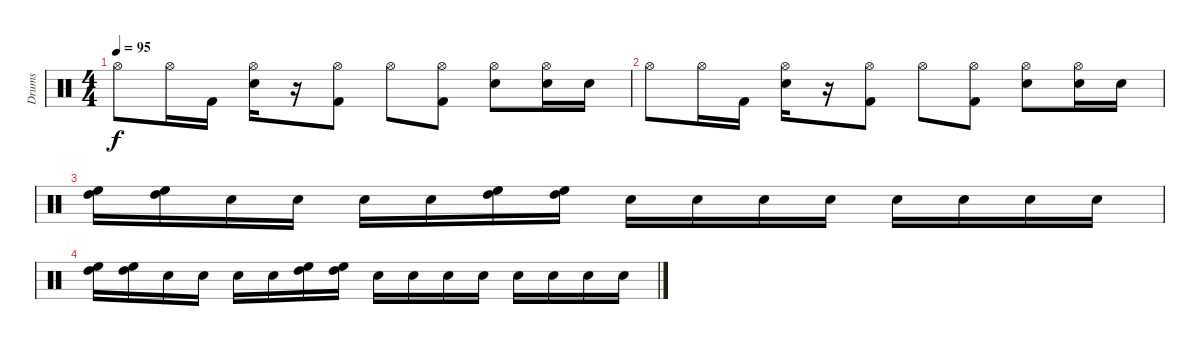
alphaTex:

\track ("Drums" "Drums") {instrument percussion}
\staff {score}
\articulation defaults
\ts (4 4)
\tempo 95
\clef neutral
\ks c "Hi-Hat (open)".8{dy f} "Hi-Hat (open)".16 "Kick (hit) 2".16
("Hi-Hat (open)" "Electric Snare (hit)").16 r.16 ("Hi-Hat (open)" "Kick (hit) 2").8 "Hi-Hat (open)".8 ("Hi-Hat (open)" "Kick (hit) 2").8 ("Hi-Hat (open)" "Electric Snare (hit)").8 ("Hi-Hat (open)" "Electric Snare (hit)").16 "Electric Snare (hit)".16 |
"Hi-Hat (open)".8 "Hi-Hat (open)".16 "Kick (hit) 2".16 ("Hi-Hat (open)" "Electric Snare (hit)").16 r.16 ("Hi-Hat (open)" "Kick (hit) 2").8 "Hi-Hat (open)".8 ("Hi-Hat (open)" "Kick (hit) 2").8 ("Hi-Hat (open)" "Electric Snare (hit)").8 ("Hi-Hat (open)" "Electric Snare (hit)").16 "Electric Snare (hit)".16 |
("High Floor Tom (hit)" "High Tom (hit)").16 ("High Floor Tom (hit)" "High Tom (hit)").16 "Snare (hit)"{x}.16 "Snare (hit)"{x}.16 "Snare (hit)"{x}.16 "Snare (hit)"{x}.16 ("High Floor Tom (hit)" "High Tom (hit)").16 ("High Floor Tom (hit)" "High Tom (hit)").16 "Snare (hit)"{x}.16 "Snare (hit)"{x}.16 "Snare (hit)"{x}.16 "Snare (hit)"{x}.16 "Snare (hit)"{x}.16 "Snare (hit)"{x}.16 "Snare (hit)"{x}.16 "Snare (hit)"{x}.16 |
("High Floor Tom (hit)" "High Tom (hit)").16 ("High Floor Tom (hit)" "High Tom (hit)").16 "Snare (hit)"{x}.16 "Snare (hit)"{x}.16 "Snare (hit)"{x}.16 "Snare (hit)"{x}.16 ("High Floor Tom (hit)" "High Tom (hit)").16 ("High Floor Tom (hit)" "High Tom (hit)").16 "Snare (hit)"{x}.16 "Snare (hit)"{x}.16 "Snare (hit)"{x}.16 "Snare (hit)"{x}.16 "Snare (hit)"{x}.16 "Snare (hit)"{x}.16 "Snare (hit)"{x}.16 "Snare (hit)"{x}.16
